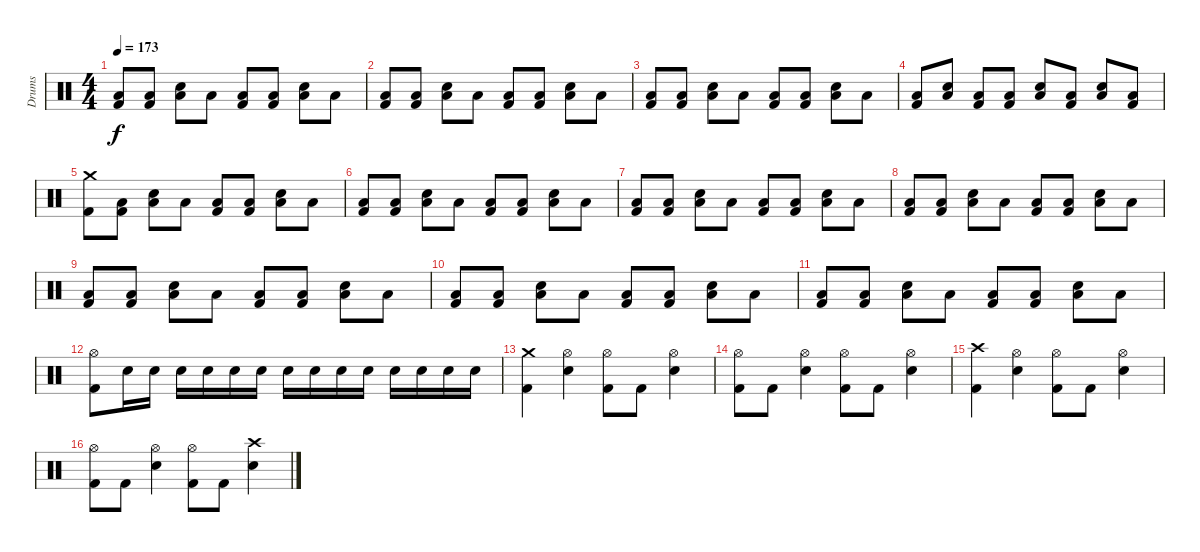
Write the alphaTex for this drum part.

\track ("Drums" "Drums") {instrument percussion}
\staff {score}
\articulation defaults
\ts (4 4)
\tempo 173
\clef neutral
\ks c
("Low Floor Tom (hit)" "Kick (hit) 2").8{dy f} ("Low Floor Tom (hit)" "Kick (hit) 2").8 ("Low Floor Tom (hit)" "Electric Snare (hit)").8 "Low Floor Tom (hit)".8 ("Low Floor Tom (hit)" "Kick (hit) 2").8 ("Low Floor Tom (hit)" "Kick (hit) 2").8 ("Low Floor Tom (hit)" "Electric Snare (hit)").8 "Low Floor Tom (hit)".8 |
("Low Floor Tom (hit)" "Kick (hit) 2").8 ("Low Floor Tom (hit)" "Kick (hit) 2").8 ("Low Floor Tom (hit)" "Electric Snare (hit)").8 "Low Floor Tom (hit)".8 ("Low Floor Tom (hit)" "Kick (hit) 2").8 ("Low Floor Tom (hit)" "Kick (hit) 2").8 ("Low Floor Tom (hit)" "Electric Snare (hit)").8 "Low Floor Tom (hit)".8 |
("Low Floor Tom (hit)" "Kick (hit) 2").8 ("Low Floor Tom (hit)" "Kick (hit) 2").8 ("Low Floor Tom (hit)" "Electric Snare (hit)").8 "Low Floor Tom (hit)".8 ("Low Floor Tom (hit)" "Kick (hit) 2").8 ("Low Floor Tom (hit)" "Kick (hit) 2").8 ("Low Floor Tom (hit)" "Electric Snare (hit)").8 "Low Floor Tom (hit)".8 |
("Low Floor Tom (hit)" "Kick (hit) 2").8 ("Low Floor Tom (hit)" "Electric Snare (hit)").8 ("Low Floor Tom (hit)" "Kick (hit) 2").8 ("Low Floor Tom (hit)" "Kick (hit) 2").8 ("Low Floor Tom (hit)" "Electric Snare (hit)").8 ("Low Floor Tom (hit)" "Kick (hit) 2").8 ("Low Floor Tom (hit)" "Electric Snare (hit)").8 ("Low Floor Tom (hit)" "Kick (hit) 2").8 |
("Crash medium (hit)" "Kick (hit) 2").8 ("Low Floor Tom (hit)" "Kick (hit) 2").8 ("Low Floor Tom (hit)" "Electric Snare (hit)").8 "Low Floor Tom (hit)".8 ("Low Floor Tom (hit)" "Kick (hit) 2").8 ("Low Floor Tom (hit)" "Kick (hit) 2").8 ("Low Floor Tom (hit)" "Electric Snare (hit)").8 "Low Floor Tom (hit)".8 |
("Low Floor Tom (hit)" "Kick (hit) 2").8 ("Low Floor Tom (hit)" "Kick (hit) 2").8 ("Low Floor Tom (hit)" "Electric Snare (hit)").8 "Low Floor Tom (hit)".8 ("Low Floor Tom (hit)" "Kick (hit) 2").8 ("Low Floor Tom (hit)" "Kick (hit) 2").8 ("Low Floor Tom (hit)" "Electric Snare (hit)").8 "Low Floor Tom (hit)".8 |
("Low Floor Tom (hit)" "Kick (hit) 2").8 ("Low Floor Tom (hit)" "Kick (hit) 2").8 ("Low Floor Tom (hit)" "Electric Snare (hit)").8 "Low Floor Tom (hit)".8 ("Low Floor Tom (hit)" "Kick (hit) 2").8 ("Low Floor Tom (hit)" "Kick (hit) 2").8 ("Low Floor Tom (hit)" "Electric Snare (hit)").8 "Low Floor Tom (hit)".8 |
("Low Floor Tom (hit)" "Kick (hit) 2").8 ("Low Floor Tom (hit)" "Kick (hit) 2").8 ("Low Floor Tom (hit)" "Electric Snare (hit)").8 "Low Floor Tom (hit)".8 ("Low Floor Tom (hit)" "Kick (hit) 2").8 ("Low Floor Tom (hit)" "Kick (hit) 2").8 ("Low Floor Tom (hit)" "Electric Snare (hit)").8 "Low Floor Tom (hit)".8 |
("Low Floor Tom (hit)" "Kick (hit) 2").8 ("Low Floor Tom (hit)" "Kick (hit) 2").8 ("Low Floor Tom (hit)" "Electric Snare (hit)").8 "Low Floor Tom (hit)".8 ("Low Floor Tom (hit)" "Kick (hit) 2").8 ("Low Floor Tom (hit)" "Kick (hit) 2").8 ("Low Floor Tom (hit)" "Electric Snare (hit)").8 "Low Floor Tom (hit)".8 |
("Low Floor Tom (hit)" "Kick (hit) 2").8 ("Low Floor Tom (hit)" "Kick (hit) 2").8 ("Low Floor Tom (hit)" "Electric Snare (hit)").8 "Low Floor Tom (hit)".8 ("Low Floor Tom (hit)" "Kick (hit) 2").8 ("Low Floor Tom (hit)" "Kick (hit) 2").8 ("Low Floor Tom (hit)" "Electric Snare (hit)").8 "Low Floor Tom (hit)".8 |
("Low Floor Tom (hit)" "Kick (hit) 2").8 ("Low Floor Tom (hit)" "Kick (hit) 2").8 ("Low Floor Tom (hit)" "Electric Snare (hit)").8 "Low Floor Tom (hit)".8 ("Low Floor Tom (hit)" "Kick (hit) 2").8 ("Low Floor Tom (hit)" "Kick (hit) 2").8 ("Low Floor Tom (hit)" "Electric Snare (hit)").8 "Low Floor Tom (hit)".8 |
("Hi-Hat (open)" "Kick (hit) 2").8 "Electric Snare (hit)".16 "Electric Snare (hit)".16 "Electric Snare (hit)".16 "Electric Snare (hit)".16 "Electric Snare (hit)".16 "Electric Snare (hit)".16 "Electric Snare (hit)".16 "Electric Snare (hit)".16 "Electric Snare (hit)".16 "Electric Snare (hit)".16 "Electric Snare (hit)".16 "Electric Snare (hit)".16 "Electric Snare (hit)".16 "Electric Snare (hit)".16 |
("Crash medium (hit)" "Kick (hit) 2").4 ("Hi-Hat (open)" "Electric Snare (hit)").4 ("Hi-Hat (open)" "Kick (hit) 2").8 "Kick (hit) 2".8 ("Hi-Hat (open)" "Electric Snare (hit)").4 |
("Hi-Hat (open)" "Kick (hit) 2").8 "Kick (hit) 2".8 ("Hi-Hat (open)" "Electric Snare (hit)").4 ("Hi-Hat (open)" "Kick (hit) 2").8 "Kick (hit) 2".8 ("Hi-Hat (open)" "Electric Snare (hit)").4 |
("Crash high (hit)" "Kick (hit) 2").4 ("Hi-Hat (open)" "Electric Snare (hit)").4 ("Hi-Hat (open)" "Kick (hit) 2").8 "Kick (hit) 2".8 ("Hi-Hat (open)" "Electric Snare (hit)").4 |
("Hi-Hat (open)" "Kick (hit) 2").8 "Kick (hit) 2".8 ("Hi-Hat (open)" "Electric Snare (hit)").4 ("Hi-Hat (open)" "Kick (hit) 2").8 "Kick (hit) 2".8 ("Crash high (hit)" "Electric Snare (hit)").4
